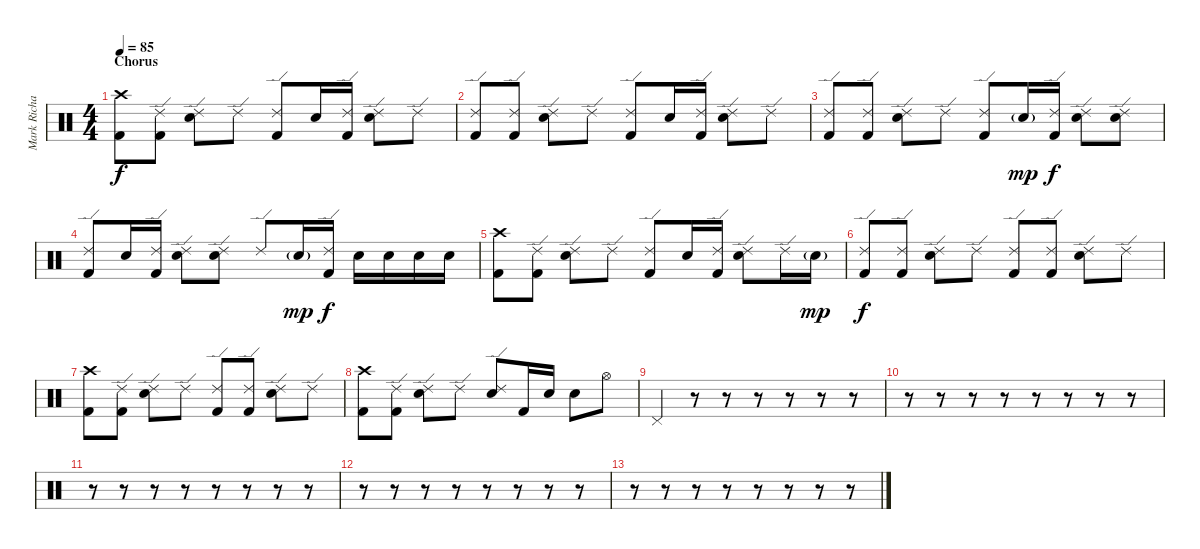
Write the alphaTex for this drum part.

\track ("Mark Richardson" "Mark Richa") {instrument percussion}
\staff {score}
\articulation defaults
\ts (4 4)
\section ("" "Chorus")
\tempo 85
\clef neutral
\ks c
("Crash high (hit)" "Kick (hit) 2").8{dy f} ("Ride (edge) 2" "Kick (hit) 2").8 ("Ride (edge) 2" "Snare (hit) 2").8 "Ride (edge) 2".8 ("Ride (edge) 2" "Kick (hit) 2").8 "Snare (hit) 2".16 ("Ride (edge) 2" "Kick (hit) 2").16 ("Ride (edge) 2" "Snare (hit) 2").8 "Ride (edge) 2".8 |
("Ride (edge) 2" "Kick (hit) 2").8 ("Ride (edge) 2" "Kick (hit) 2").8 ("Ride (edge) 2" "Snare (hit) 2").8 "Ride (edge) 2".8 ("Ride (edge) 2" "Kick (hit) 2").8 "Snare (hit) 2".16 ("Ride (edge) 2" "Kick (hit) 2").16 ("Ride (edge) 2" "Snare (hit) 2").8 "Ride (edge) 2".8 |
("Ride (edge) 2" "Kick (hit) 2").8 ("Ride (edge) 2" "Kick (hit) 2").8 ("Ride (edge) 2" "Snare (hit) 2").8 "Ride (edge) 2".8 ("Ride (edge) 2" "Kick (hit) 2").8 "Snare (hit) 2"{g}.16{dy mp} ("Ride (edge) 2" "Kick (hit) 2").16{dy f} ("Ride (edge) 2" "Snare (hit) 2").8 ("Ride (edge) 2" "Snare (hit) 2").8 |
("Ride (edge) 2" "Kick (hit) 2").8 "Snare (hit) 2".16 ("Ride (edge) 2" "Kick (hit) 2").16 ("Ride (edge) 2" "Snare (hit) 2").8 ("Ride (edge) 2" "Snare (hit) 2").8 "Ride (edge) 2".8 "Snare (hit) 2"{g}.16{dy mp} ("Ride (edge) 2" "Kick (hit) 2").16{dy f} "Snare (hit) 2".16 "Snare (hit) 2".16 "Snare (hit) 2".16 "Snare (hit) 2".16 |
("Crash high (hit)" "Kick (hit) 2").8 ("Ride (edge) 2" "Kick (hit) 2").8 ("Ride (edge) 2" "Snare (hit) 2").8 "Ride (edge) 2".8 ("Ride (edge) 2" "Kick (hit) 2").8 "Snare (hit) 2".16 ("Ride (edge) 2" "Kick (hit) 2").16 ("Ride (edge) 2" "Snare (hit) 2").8 "Ride (edge) 2".16 "Snare (hit) 2"{g}.16{dy mp} |
("Ride (edge) 2" "Kick (hit) 2").8{dy f} ("Ride (edge) 2" "Kick (hit) 2").8 ("Ride (edge) 2" "Snare (hit) 2").8 "Ride (edge) 2".8 ("Ride (edge) 2" "Kick (hit) 2").8 ("Ride (edge) 2" "Kick (hit) 2").8 ("Ride (edge) 2" "Snare (hit) 2").8 "Ride (edge) 2".8 |
("Crash high (hit)" "Kick (hit) 2").8 ("Ride (edge) 2" "Kick (hit) 2").8 ("Ride (edge) 2" "Snare (hit) 2").8 "Ride (edge) 2".8 ("Ride (edge) 2" "Kick (hit) 2").8 ("Ride (edge) 2" "Kick (hit) 2").8 ("Ride (edge) 2" "Snare (hit) 2").8 "Ride (edge) 2".8 |
("Crash high (hit)" "Kick (hit) 2").8 ("Ride (edge) 2" "Kick (hit) 2").8 ("Ride (edge) 2" "Snare (hit) 2").8 "Ride (edge) 2".8 ("Ride (edge) 2" "Snare (hit) 2").8 "Kick (hit) 2".16 "Snare (hit) 2".16 "Snare (hit) 2".8 "Hi-Hat (open)".8 |
"Pedal Hi-Hat (hit)".4 r.8 r.8 r.8 r.8 r.8 r.8 |
r.8 r.8 r.8 r.8 r.8 r.8 r.8 r.8 |
r.8 r.8 r.8 r.8 r.8 r.8 r.8 r.8 |
r.8 r.8 r.8 r.8 r.8 r.8 r.8 r.8 |
r.8 r.8 r.8 r.8 r.8 r.8 r.8 r.8
